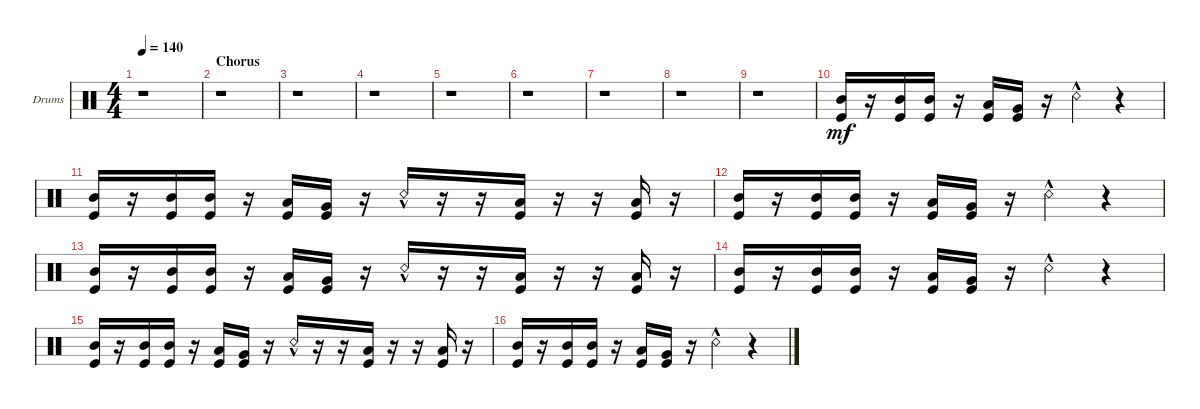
\defaultSystemsLayout 4
\bracketExtendMode groupsimilarinstruments
\firstSystemTrackNameOrientation horizontal
\otherSystemsTrackNameOrientation horizontal
\track ("Effects (Drums) - (Paul)" "Drums") {instrument percussion}
\staff {score}
\articulation defaults
\ts (4 4)
\tempo 140
\clef neutral
\ks c
r.1{dy f} |
\section ("" "Chorus")
r.1 |
r.1 |
r.1 |
r.1 |
r.1 |
r.1 |
r.1 |
r.1 |
("Mid Tom (hit)" "Kick (hit)").16{dy mf} r.16 ("Mid Tom (hit)" "Kick (hit)").16 ("Mid Tom (hit)" "Kick (hit)").16 r.16 ("Low Tom (hit)" "Kick (hit)").16 ("Very Low Tom (hit)" "Kick (hit)").16 r.16 "Snare (rim shot)"{hac}.4 r.4 |
("Mid Tom (hit)" "Kick (hit)").16 r.16 ("Mid Tom (hit)" "Kick (hit)").16 ("Mid Tom (hit)" "Kick (hit)").16 r.16 ("Low Tom (hit)" "Kick (hit)").16 ("Very Low Tom (hit)" "Kick (hit)").16 r.16 "Snare (rim shot)"{hac}.16 r.16 r.16 ("Kick (hit)" "Low Tom (hit)").16 r.16 r.16 ("Kick (hit)" "Low Tom (hit)").16 r.16 |
("Mid Tom (hit)" "Kick (hit)").16 r.16 ("Mid Tom (hit)" "Kick (hit)").16 ("Mid Tom (hit)" "Kick (hit)").16 r.16 ("Low Tom (hit)" "Kick (hit)").16 ("Very Low Tom (hit)" "Kick (hit)").16 r.16 "Snare (rim shot)"{hac}.4 r.4 |
("Mid Tom (hit)" "Kick (hit)").16 r.16 ("Mid Tom (hit)" "Kick (hit)").16 ("Mid Tom (hit)" "Kick (hit)").16 r.16 ("Low Tom (hit)" "Kick (hit)").16 ("Very Low Tom (hit)" "Kick (hit)").16 r.16 "Snare (rim shot)"{hac}.16 r.16 r.16 ("Kick (hit)" "Low Tom (hit)").16 r.16 r.16 ("Kick (hit)" "Low Tom (hit)").16 r.16 |
("Mid Tom (hit)" "Kick (hit)").16 r.16 ("Mid Tom (hit)" "Kick (hit)").16 ("Mid Tom (hit)" "Kick (hit)").16 r.16 ("Low Tom (hit)" "Kick (hit)").16 ("Very Low Tom (hit)" "Kick (hit)").16 r.16 "Snare (rim shot)"{hac}.4 r.4 |
("Mid Tom (hit)" "Kick (hit)").16 r.16 ("Mid Tom (hit)" "Kick (hit)").16 ("Mid Tom (hit)" "Kick (hit)").16 r.16 ("Low Tom (hit)" "Kick (hit)").16 ("Very Low Tom (hit)" "Kick (hit)").16 r.16 "Snare (rim shot)"{hac}.16 r.16 r.16 ("Kick (hit)" "Low Tom (hit)").16 r.16 r.16 ("Kick (hit)" "Low Tom (hit)").16 r.16 |
("Mid Tom (hit)" "Kick (hit)").16 r.16 ("Mid Tom (hit)" "Kick (hit)").16 ("Mid Tom (hit)" "Kick (hit)").16 r.16 ("Low Tom (hit)" "Kick (hit)").16 ("Very Low Tom (hit)" "Kick (hit)").16 r.16 "Snare (rim shot)"{hac}.4 r.4
